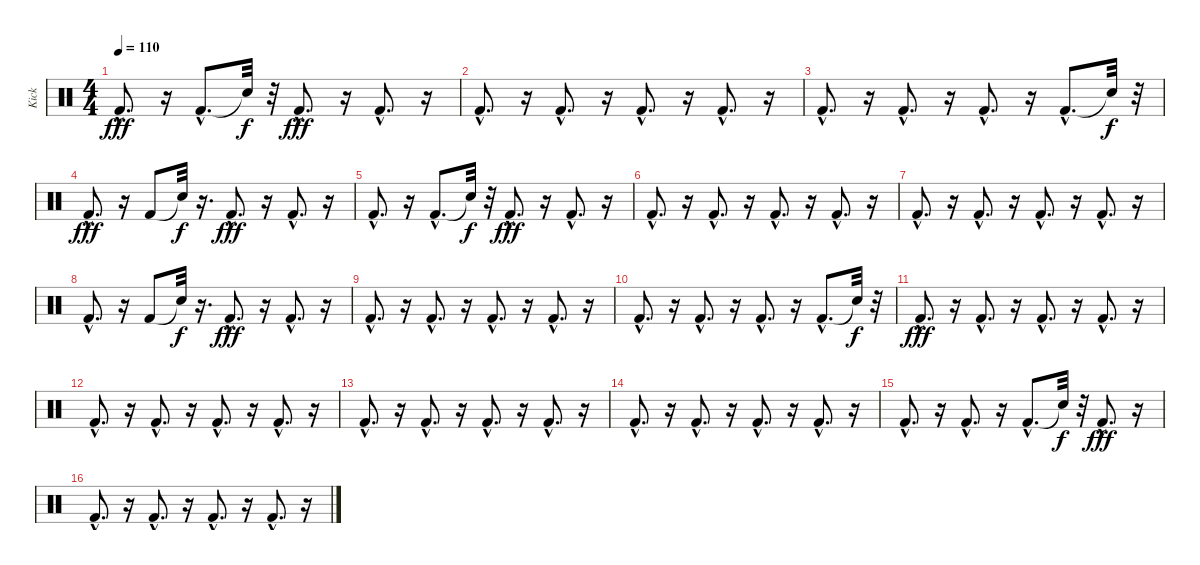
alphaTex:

\track ("Kick" "Kick") {instrument percussion}
\staff {score}
\articulation defaults
\ts (4 4)
\tempo 110
\clef neutral
\ks c "Kick (hit) 2"{hac}.8{d dy fff}
r.16 "Kick (hit) 2"{hac}.8{d} "Snare (hit)"{t}.32{dy f} r.32 "Kick (hit) 2"{hac}.8{d dy fff} r.16 "Kick (hit) 2"{hac}.8{d} r.16 |
"Kick (hit) 2"{hac}.8{d} r.16 "Kick (hit) 2"{hac}.8{d} r.16 "Kick (hit) 2"{hac}.8{d} r.16 "Kick (hit) 2"{hac}.8{d} r.16 |
"Kick (hit) 2"{hac}.8{d} r.16 "Kick (hit) 2"{hac}.8{d} r.16 "Kick (hit) 2"{hac}.8{d} r.16 "Kick (hit) 2"{hac}.8{d} "Snare (hit)"{t}.32{dy f} r.32 |
"Kick (hit) 2"{hac}.8{d dy fff} r.16 "Kick (hit) 2".8 "Snare (hit)"{t}.32{dy f} r.16{d} "Kick (hit) 2"{hac}.8{d dy fff} r.16 "Kick (hit) 2"{hac}.8{d} r.16 |
"Kick (hit) 2"{hac}.8{d} r.16 "Kick (hit) 2"{hac}.8{d} "Snare (hit)"{t}.32{dy f} r.32 "Kick (hit) 2"{hac}.8{d dy fff} r.16 "Kick (hit) 2"{hac}.8{d} r.16 |
"Kick (hit) 2"{hac}.8{d} r.16 "Kick (hit) 2"{hac}.8{d} r.16 "Kick (hit) 2"{hac}.8{d} r.16 "Kick (hit) 2"{hac}.8{d} r.16 |
"Kick (hit) 2"{hac}.8{d} r.16 "Kick (hit) 2"{hac}.8{d} r.16 "Kick (hit) 2"{hac}.8{d} r.16 "Kick (hit) 2"{hac}.8{d} r.16 |
"Kick (hit) 2"{hac}.8{d} r.16 "Kick (hit) 2".8 "Snare (hit)"{t}.32{dy f} r.16{d} "Kick (hit) 2"{hac}.8{d dy fff} r.16 "Kick (hit) 2"{hac}.8{d} r.16 |
"Kick (hit) 2"{hac}.8{d} r.16 "Kick (hit) 2"{hac}.8{d} r.16 "Kick (hit) 2"{hac}.8{d} r.16 "Kick (hit) 2"{hac}.8{d} r.16 |
"Kick (hit) 2"{hac}.8{d} r.16 "Kick (hit) 2"{hac}.8{d} r.16 "Kick (hit) 2"{hac}.8{d} r.16 "Kick (hit) 2"{hac}.8{d} "Snare (hit)"{t}.32{dy f} r.32 |
"Kick (hit) 2"{hac}.8{d dy fff} r.16 "Kick (hit) 2"{hac}.8{d} r.16 "Kick (hit) 2"{hac}.8{d} r.16 "Kick (hit) 2"{hac}.8{d} r.16 |
"Kick (hit) 2"{hac}.8{d} r.16 "Kick (hit) 2"{hac}.8{d} r.16 "Kick (hit) 2"{hac}.8{d} r.16 "Kick (hit) 2"{hac}.8{d} r.16 |
"Kick (hit) 2"{hac}.8{d} r.16 "Kick (hit) 2"{hac}.8{d} r.16 "Kick (hit) 2"{hac}.8{d} r.16 "Kick (hit) 2"{hac}.8{d} r.16 |
"Kick (hit) 2"{hac}.8{d} r.16 "Kick (hit) 2"{hac}.8{d} r.16 "Kick (hit) 2"{hac}.8{d} r.16 "Kick (hit) 2"{hac}.8{d} r.16 |
"Kick (hit) 2"{hac}.8{d} r.16 "Kick (hit) 2"{hac}.8{d} r.16 "Kick (hit) 2"{hac}.8{d} "Snare (hit)"{t}.32{dy f} r.32 "Kick (hit) 2"{hac}.8{d dy fff} r.16 |
"Kick (hit) 2"{hac}.8{d} r.16 "Kick (hit) 2"{hac}.8{d} r.16 "Kick (hit) 2"{hac}.8{d} r.16 "Kick (hit) 2"{hac}.8{d} r.16
